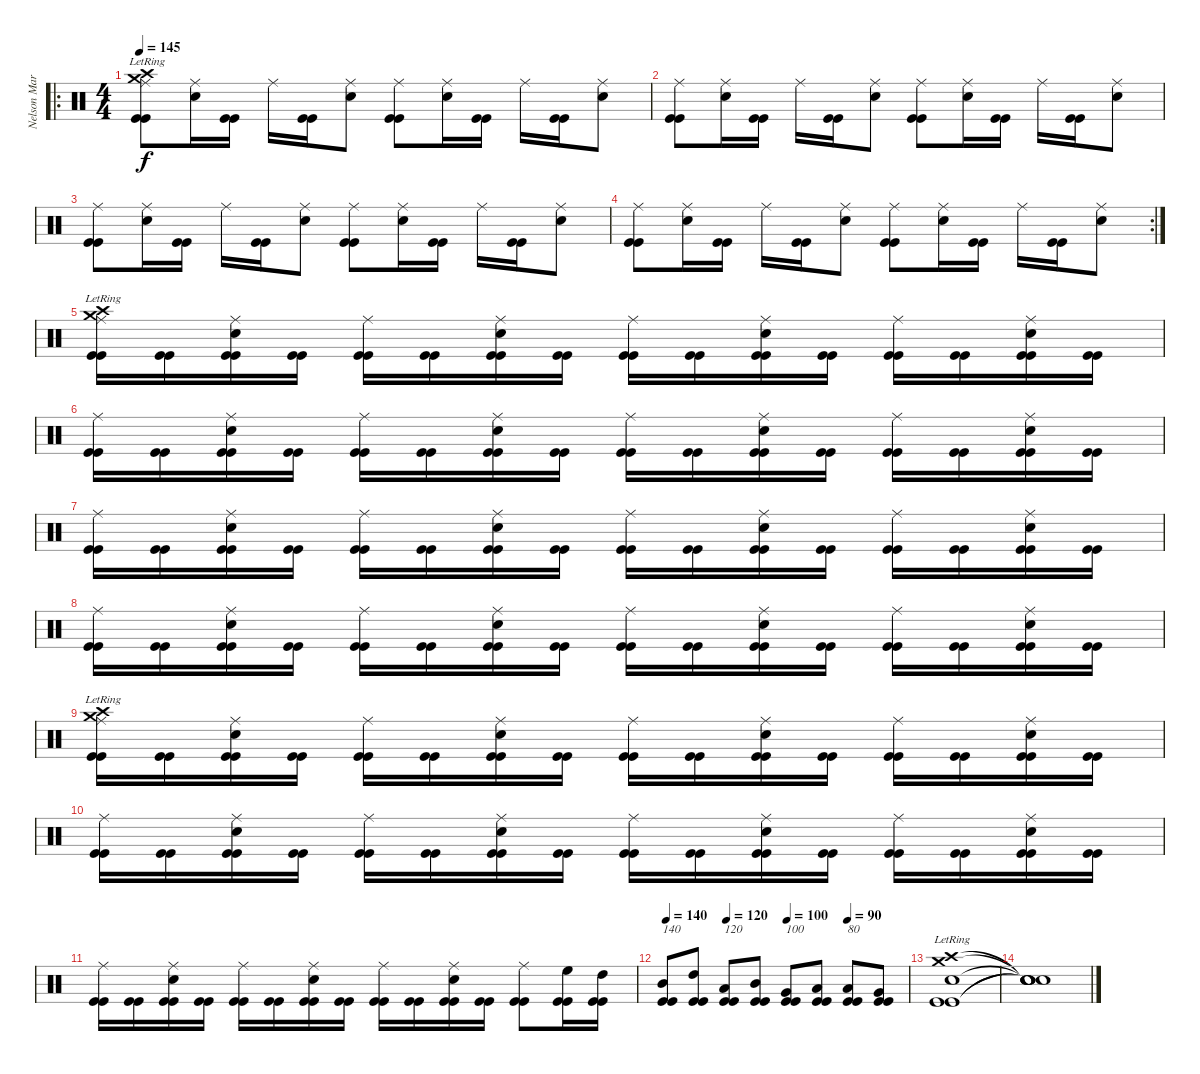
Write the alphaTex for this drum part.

\track ("Nelson Maria" "Nelson Mar") {instrument percussion}
\staff {score}
\articulation defaults
\ro
\ts (4 4)
\tempo 145
\clef neutral
\ks c
("Crash high (hit)"{lr} "Crash medium (hit)"{lr} "Ride (middle)" "Kick (hit)" "Kick (hit)").8{dy f} ("Snare (hit) 2" "Ride (middle)").16 ("Kick (hit)" "Kick (hit)").16 "Ride (middle)".16 ("Kick (hit)" "Kick (hit)").16 ("Snare (hit) 2" "Ride (middle)").8 ("Ride (middle)" "Kick (hit)" "Kick (hit)").8 ("Snare (hit) 2" "Ride (middle)").16 ("Kick (hit)" "Kick (hit)").16 "Ride (middle)".16 ("Kick (hit)" "Kick (hit)").16 ("Snare (hit) 2" "Ride (middle)").8 |
("Ride (middle)" "Kick (hit)" "Kick (hit)").8 ("Snare (hit) 2" "Ride (middle)").16 ("Kick (hit)" "Kick (hit)").16 "Ride (middle)".16 ("Kick (hit)" "Kick (hit)").16 ("Snare (hit) 2" "Ride (middle)").8 ("Ride (middle)" "Kick (hit)" "Kick (hit)").8 ("Snare (hit) 2" "Ride (middle)").16 ("Kick (hit)" "Kick (hit)").16 "Ride (middle)".16 ("Kick (hit)" "Kick (hit)").16 ("Snare (hit) 2" "Ride (middle)").8 |
("Ride (middle)" "Kick (hit)" "Kick (hit)").8 ("Snare (hit) 2" "Ride (middle)").16 ("Kick (hit)" "Kick (hit)").16 "Ride (middle)".16 ("Kick (hit)" "Kick (hit)").16 ("Snare (hit) 2" "Ride (middle)").8 ("Ride (middle)" "Kick (hit)" "Kick (hit)").8 ("Snare (hit) 2" "Ride (middle)").16 ("Kick (hit)" "Kick (hit)").16 "Ride (middle)".16 ("Kick (hit)" "Kick (hit)").16 ("Snare (hit) 2" "Ride (middle)").8 |
\rc 2
("Ride (middle)" "Kick (hit)" "Kick (hit)").8 ("Snare (hit) 2" "Ride (middle)").16 ("Kick (hit)" "Kick (hit)").16 "Ride (middle)".16 ("Kick (hit)" "Kick (hit)").16 ("Snare (hit) 2" "Ride (middle)").8 ("Ride (middle)" "Kick (hit)" "Kick (hit)").8 ("Snare (hit) 2" "Ride (middle)").16 ("Kick (hit)" "Kick (hit)").16 "Ride (middle)".16 ("Kick (hit)" "Kick (hit)").16 ("Snare (hit) 2" "Ride (middle)").8 |
("Crash high (hit)"{lr} "Crash medium (hit)"{lr} "Ride (middle)" "Kick (hit)" "Kick (hit)").16 ("Kick (hit)" "Kick (hit)").16 ("Snare (hit) 2" "Ride (middle)" "Kick (hit)" "Kick (hit)").16 ("Kick (hit)" "Kick (hit)").16 ("Ride (middle)" "Kick (hit)" "Kick (hit)").16 ("Kick (hit)" "Kick (hit)").16 ("Snare (hit) 2" "Ride (middle)" "Kick (hit)" "Kick (hit)").16 ("Kick (hit)" "Kick (hit)").16 ("Ride (middle)" "Kick (hit)" "Kick (hit)").16 ("Kick (hit)" "Kick (hit)").16 ("Snare (hit) 2" "Ride (middle)" "Kick (hit)" "Kick (hit)").16 ("Kick (hit)" "Kick (hit)").16 ("Ride (middle)" "Kick (hit)" "Kick (hit)").16 ("Kick (hit)" "Kick (hit)").16 ("Snare (hit) 2" "Ride (middle)" "Kick (hit)" "Kick (hit)").16 ("Kick (hit)" "Kick (hit)").16 |
("Ride (middle)" "Kick (hit)" "Kick (hit)").16 ("Kick (hit)" "Kick (hit)").16 ("Snare (hit) 2" "Ride (middle)" "Kick (hit)" "Kick (hit)").16 ("Kick (hit)" "Kick (hit)").16 ("Ride (middle)" "Kick (hit)" "Kick (hit)").16 ("Kick (hit)" "Kick (hit)").16 ("Snare (hit) 2" "Ride (middle)" "Kick (hit)" "Kick (hit)").16 ("Kick (hit)" "Kick (hit)").16 ("Ride (middle)" "Kick (hit)" "Kick (hit)").16 ("Kick (hit)" "Kick (hit)").16 ("Snare (hit) 2" "Ride (middle)" "Kick (hit)" "Kick (hit)").16 ("Kick (hit)" "Kick (hit)").16 ("Ride (middle)" "Kick (hit)" "Kick (hit)").16 ("Kick (hit)" "Kick (hit)").16 ("Snare (hit) 2" "Ride (middle)" "Kick (hit)" "Kick (hit)").16 ("Kick (hit)" "Kick (hit)").16 |
("Ride (middle)" "Kick (hit)" "Kick (hit)").16 ("Kick (hit)" "Kick (hit)").16 ("Snare (hit) 2" "Ride (middle)" "Kick (hit)" "Kick (hit)").16 ("Kick (hit)" "Kick (hit)").16 ("Ride (middle)" "Kick (hit)" "Kick (hit)").16 ("Kick (hit)" "Kick (hit)").16 ("Snare (hit) 2" "Ride (middle)" "Kick (hit)" "Kick (hit)").16 ("Kick (hit)" "Kick (hit)").16 ("Ride (middle)" "Kick (hit)" "Kick (hit)").16 ("Kick (hit)" "Kick (hit)").16 ("Snare (hit) 2" "Ride (middle)" "Kick (hit)" "Kick (hit)").16 ("Kick (hit)" "Kick (hit)").16 ("Ride (middle)" "Kick (hit)" "Kick (hit)").16 ("Kick (hit)" "Kick (hit)").16 ("Snare (hit) 2" "Ride (middle)" "Kick (hit)" "Kick (hit)").16 ("Kick (hit)" "Kick (hit)").16 |
("Ride (middle)" "Kick (hit)" "Kick (hit)").16 ("Kick (hit)" "Kick (hit)").16 ("Snare (hit) 2" "Ride (middle)" "Kick (hit)" "Kick (hit)").16 ("Kick (hit)" "Kick (hit)").16 ("Ride (middle)" "Kick (hit)" "Kick (hit)").16 ("Kick (hit)" "Kick (hit)").16 ("Snare (hit) 2" "Ride (middle)" "Kick (hit)" "Kick (hit)").16 ("Kick (hit)" "Kick (hit)").16 ("Ride (middle)" "Kick (hit)" "Kick (hit)").16 ("Kick (hit)" "Kick (hit)").16 ("Snare (hit) 2" "Ride (middle)" "Kick (hit)" "Kick (hit)").16 ("Kick (hit)" "Kick (hit)").16 ("Ride (middle)" "Kick (hit)" "Kick (hit)").16 ("Kick (hit)" "Kick (hit)").16 ("Snare (hit) 2" "Ride (middle)" "Kick (hit)" "Kick (hit)").16 ("Kick (hit)" "Kick (hit)").16 |
("Crash high (hit)"{lr} "Crash medium (hit)"{lr} "Ride (middle)" "Kick (hit)" "Kick (hit)").16 ("Kick (hit)" "Kick (hit)").16 ("Snare (hit) 2" "Ride (middle)" "Kick (hit)" "Kick (hit)").16 ("Kick (hit)" "Kick (hit)").16 ("Ride (middle)" "Kick (hit)" "Kick (hit)").16 ("Kick (hit)" "Kick (hit)").16 ("Snare (hit) 2" "Ride (middle)" "Kick (hit)" "Kick (hit)").16 ("Kick (hit)" "Kick (hit)").16 ("Ride (middle)" "Kick (hit)" "Kick (hit)").16 ("Kick (hit)" "Kick (hit)").16 ("Snare (hit) 2" "Ride (middle)" "Kick (hit)" "Kick (hit)").16 ("Kick (hit)" "Kick (hit)").16 ("Ride (middle)" "Kick (hit)" "Kick (hit)").16 ("Kick (hit)" "Kick (hit)").16 ("Snare (hit) 2" "Ride (middle)" "Kick (hit)" "Kick (hit)").16 ("Kick (hit)" "Kick (hit)").16 |
("Ride (middle)" "Kick (hit)" "Kick (hit)").16 ("Kick (hit)" "Kick (hit)").16 ("Snare (hit) 2" "Ride (middle)" "Kick (hit)" "Kick (hit)").16 ("Kick (hit)" "Kick (hit)").16 ("Ride (middle)" "Kick (hit)" "Kick (hit)").16 ("Kick (hit)" "Kick (hit)").16 ("Snare (hit) 2" "Ride (middle)" "Kick (hit)" "Kick (hit)").16 ("Kick (hit)" "Kick (hit)").16 ("Ride (middle)" "Kick (hit)" "Kick (hit)").16 ("Kick (hit)" "Kick (hit)").16 ("Snare (hit) 2" "Ride (middle)" "Kick (hit)" "Kick (hit)").16 ("Kick (hit)" "Kick (hit)").16 ("Ride (middle)" "Kick (hit)" "Kick (hit)").16 ("Kick (hit)" "Kick (hit)").16 ("Snare (hit) 2" "Ride (middle)" "Kick (hit)" "Kick (hit)").16 ("Kick (hit)" "Kick (hit)").16 |
("Ride (middle)" "Kick (hit)" "Kick (hit)").16 ("Kick (hit)" "Kick (hit)").16 ("Snare (hit) 2" "Ride (middle)" "Kick (hit)" "Kick (hit)").16 ("Kick (hit)" "Kick (hit)").16 ("Ride (middle)" "Kick (hit)" "Kick (hit)").16 ("Kick (hit)" "Kick (hit)").16 ("Snare (hit) 2" "Ride (middle)" "Kick (hit)" "Kick (hit)").16 ("Kick (hit)" "Kick (hit)").16 ("Ride (middle)" "Kick (hit)" "Kick (hit)").16 ("Kick (hit)" "Kick (hit)").16 ("Snare (hit) 2" "Ride (middle)" "Kick (hit)" "Kick (hit)").16 ("Kick (hit)" "Kick (hit)").16 ("Ride (middle)" "Kick (hit)" "Kick (hit)").8 ("High Floor Tom (hit)" "Kick (hit)" "Kick (hit)").16 ("High Tom (hit)" "Kick (hit)" "Kick (hit)").16 |
\tempo 140
\tempo (120 0.25)
\tempo (100 0.5)
\tempo (80 0.75)
\tempo (90 0.75)
("Mid Tom (hit)" "Kick (hit)" "Kick (hit)").8{txt "140"} ("High Tom (hit)" "Kick (hit)" "Kick (hit)").8 ("Low Tom (hit)" "Kick (hit)" "Kick (hit)").8{txt "120"} ("Mid Tom (hit)" "Kick (hit)" "Kick (hit)").8 ("Very Low Tom (hit)" "Kick (hit)" "Kick (hit)").8{txt "100"} ("Low Tom (hit)" "Kick (hit)" "Kick (hit)").8 ("Low Floor Tom (hit)" "Kick (hit)" "Kick (hit)").8{txt "80"} ("Very Low Tom (hit)" "Kick (hit)" "Kick (hit)").8 |
("Crash high (hit)"{lr} "Crash medium (hit)"{lr} "Snare (hit) 2" "Kick (hit)" "Kick (hit)").1 |
("Snare (hit)"{t} "Snare (hit)"{t} "Snare (hit)"{t} "Snare (hit)"{t} "Snare (hit)"{t}).1
